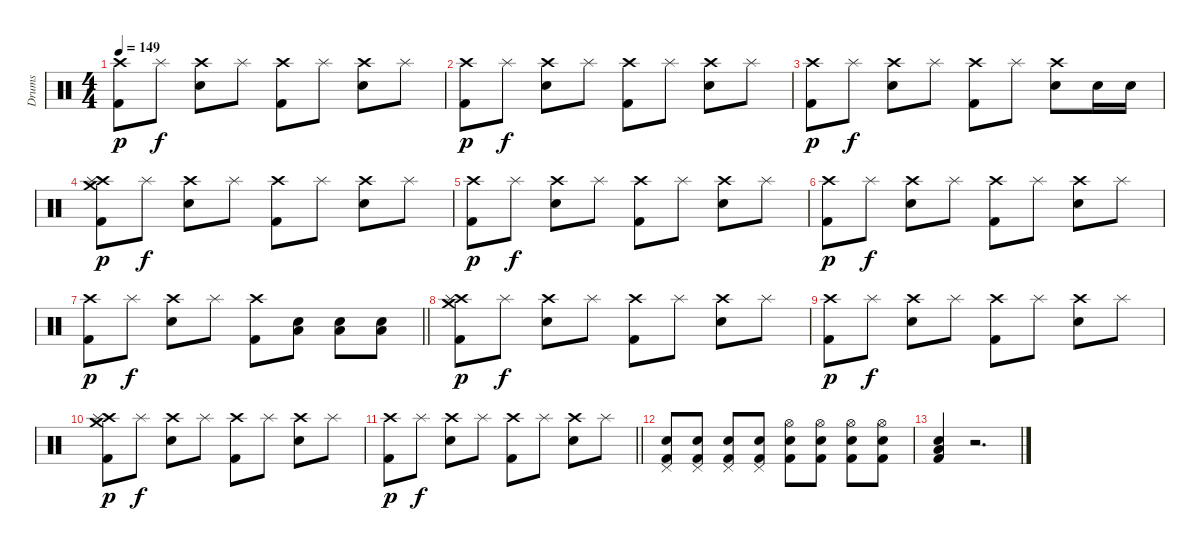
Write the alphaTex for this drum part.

\track ("Drums" "Drums") {instrument percussion}
\staff {score}
\articulation defaults
\ts (4 4)
\tempo 149
\clef neutral
\ks c
("Crash high (hit)" "Kick (hit) 2").8{dy p} "Splash (hit)".8{dy f} ("Crash high (hit)" "Snare (hit) 2").8 "Splash (hit)".8 ("Crash high (hit)" "Kick (hit) 2").8 "Splash (hit)".8 ("Crash high (hit)" "Snare (hit) 2").8 "Splash (hit)".8 |
("Crash high (hit)" "Kick (hit) 2").8{dy p} "Splash (hit)".8{dy f} ("Crash high (hit)" "Snare (hit) 2").8 "Splash (hit)".8 ("Crash high (hit)" "Kick (hit) 2").8 "Splash (hit)".8 ("Crash high (hit)" "Snare (hit) 2").8 "Splash (hit)".8 |
("Crash high (hit)" "Kick (hit) 2").8{dy p} "Splash (hit)".8{dy f} ("Crash high (hit)" "Snare (hit) 2").8 "Splash (hit)".8 ("Crash high (hit)" "Kick (hit) 2").8 "Splash (hit)".8 ("Crash high (hit)" "Snare (hit) 2").8 "Snare (hit) 2".16 "Snare (hit) 2".16 |
("Crash medium (hit)" "Crash high (hit)" "Splash (hit)" "Kick (hit) 2").8{dy p} "Splash (hit)".8{dy f} ("Crash high (hit)" "Snare (hit) 2").8 "Splash (hit)".8 ("Crash high (hit)" "Kick (hit) 2").8 "Splash (hit)".8 ("Crash high (hit)" "Snare (hit) 2").8 "Splash (hit)".8 |
("Crash high (hit)" "Kick (hit) 2").8{dy p} "Splash (hit)".8{dy f} ("Crash high (hit)" "Snare (hit) 2").8 "Splash (hit)".8 ("Crash high (hit)" "Kick (hit) 2").8 "Splash (hit)".8 ("Crash high (hit)" "Snare (hit) 2").8 "Splash (hit)".8 |
("Crash high (hit)" "Kick (hit) 2").8{dy p} "Splash (hit)".8{dy f} ("Crash high (hit)" "Snare (hit) 2").8 "Splash (hit)".8 ("Crash high (hit)" "Kick (hit) 2").8 "Splash (hit)".8 ("Crash high (hit)" "Snare (hit) 2").8 "Splash (hit)".8 |
\barLineRight lightlight
("Crash high (hit)" "Kick (hit) 2").8{dy p} "Splash (hit)".8{dy f} ("Crash high (hit)" "Snare (hit) 2").8 "Splash (hit)".8 ("Crash high (hit)" "Kick (hit) 2").8 ("Low Floor Tom (hit)" "Snare (hit) 2").8 ("Low Floor Tom (hit)" "Snare (hit) 2").8 ("Low Floor Tom (hit)" "Snare (hit) 2").8 |
("Crash medium (hit)" "Crash high (hit)" "Splash (hit)" "Kick (hit) 2").8{dy p} "Splash (hit)".8{dy f} ("Crash high (hit)" "Snare (hit) 2").8 "Splash (hit)".8 ("Crash high (hit)" "Kick (hit) 2").8 "Splash (hit)".8 ("Crash high (hit)" "Snare (hit) 2").8 "Splash (hit)".8 |
("Crash high (hit)" "Kick (hit) 2").8{dy p} "Splash (hit)".8{dy f} ("Crash high (hit)" "Snare (hit) 2").8 "Splash (hit)".8 ("Crash high (hit)" "Kick (hit) 2").8 "Splash (hit)".8 ("Crash high (hit)" "Snare (hit) 2").8 "Splash (hit)".8 |
("Crash medium (hit)" "Crash high (hit)" "Splash (hit)" "Kick (hit) 2").8{dy p} "Splash (hit)".8{dy f} ("Crash high (hit)" "Snare (hit) 2").8 "Splash (hit)".8 ("Crash high (hit)" "Kick (hit) 2").8 "Splash (hit)".8 ("Crash high (hit)" "Snare (hit) 2").8 "Splash (hit)".8 |
\barLineRight lightlight
("Crash high (hit)" "Kick (hit) 2").8{dy p} "Splash (hit)".8{dy f} ("Crash high (hit)" "Snare (hit) 2").8 "Splash (hit)".8 ("Crash high (hit)" "Kick (hit) 2").8 "Splash (hit)".8 ("Crash high (hit)" "Snare (hit) 2").8 "Splash (hit)".8 |
("Pedal Hi-Hat (hit)" "Snare (hit) 2" "Kick (hit) 2").8 ("Pedal Hi-Hat (hit)" "Snare (hit) 2" "Kick (hit) 2").8 ("Pedal Hi-Hat (hit)" "Snare (hit) 2" "Kick (hit) 2").8 ("Pedal Hi-Hat (hit)" "Snare (hit) 2" "Kick (hit) 2").8 ("Hi-Hat (open)" "Snare (hit) 2" "Kick (hit) 2").8 ("Hi-Hat (open)" "Snare (hit) 2" "Kick (hit) 2").8 ("Hi-Hat (open)" "Snare (hit) 2" "Kick (hit) 2").8 ("Hi-Hat (open)" "Snare (hit) 2" "Kick (hit) 2").8 |
("Snare (hit) 2" "Low Floor Tom (hit)" "Kick (hit) 2").4 r.2{d}
